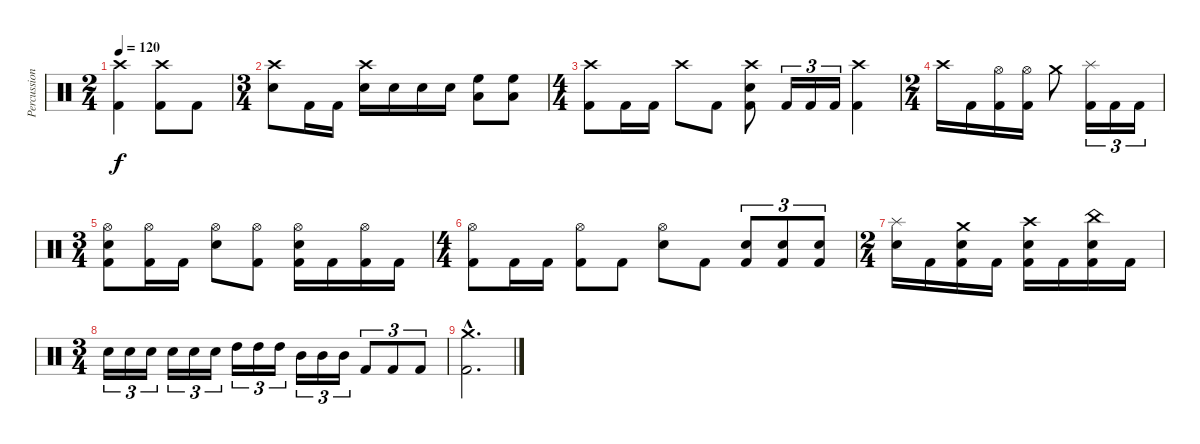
\track ("Percussion" "Percussion") {instrument percussion}
\staff {score}
\articulation defaults
\ts (2 4)
\tempo 120
\clef neutral
\ks aminor
("Crash high (hit)" "Kick (hit) 2").4{dy f} ("Crash high (hit)" "Kick (hit) 2").8 "Kick (hit) 2".8 |
\ts (3 4)
("Crash high (hit)" "Electric Snare (hit)").8 "Kick (hit) 2".16 "Kick (hit) 2".16 ("Crash high (hit)" "Electric Snare (hit)").16 "Electric Snare (hit)".16 "Electric Snare (hit)".16 "Electric Snare (hit)".16 ("Low Tom (hit)" "High Floor Tom (hit)").8 ("Low Tom (hit)" "High Floor Tom (hit)").8 |
\ts (4 4)
("Crash high (hit)" "Kick (hit) 2").8 "Kick (hit) 2".16 "Kick (hit) 2".16 "Crash high (hit)".8 "Kick (hit) 2".8 ("Crash high (hit)" "Electric Snare (hit)" "Kick (hit) 2").8 "Kick (hit) 2".16{tu (3 2)} "Kick (hit) 2".16{tu (3 2)} "Kick (hit) 2".16{tu (3 2)} ("Crash high (hit)" "Kick (hit) 2").4 |
\ts (2 4)
"Crash high (hit)".16 "Kick (hit) 2".16 ("Hi-Hat (open)" "Kick (hit) 2").16 ("Hi-Hat (open)" "Kick (hit) 2").16 "Crash medium (hit)".8 ("Splash (hit)" "Kick (hit) 2").16{tu (3 2)} "Kick (hit) 2".16{tu (3 2)} "Kick (hit) 2".16{tu (3 2)} |
\ts (3 4)
("Hi-Hat (open)" "Electric Snare (hit)" "Kick (hit) 2").8 ("Hi-Hat (open)" "Kick (hit) 2").16 "Kick (hit) 2".16 ("Hi-Hat (open)" "Electric Snare (hit)").8 ("Hi-Hat (open)" "Kick (hit) 2").8 ("Hi-Hat (open)" "Electric Snare (hit)" "Kick (hit) 2").16 "Kick (hit) 2".16 ("Hi-Hat (open)" "Kick (hit) 2").16 "Kick (hit) 2".16 |
\ts (4 4)
("Hi-Hat (open)" "Kick (hit) 2").8 "Kick (hit) 2".16 "Kick (hit) 2".16 ("Hi-Hat (open)" "Kick (hit) 2").8 "Kick (hit) 2".8 ("Hi-Hat (open)" "Electric Snare (hit)").8 "Kick (hit) 2".8 ("Electric Snare (hit)" "Kick (hit) 2").8{tu (3 2)} ("Electric Snare (hit)" "Kick (hit) 2").8{tu (3 2)} ("Electric Snare (hit)" "Kick (hit) 2").8{tu (3 2)} |
\ts (2 4)
("Splash (hit)" "Electric Snare (hit)").16 "Kick (hit) 2".16 ("Crash medium (hit)" "Electric Snare (hit)" "Kick (hit) 2").16 "Kick (hit) 2".16 ("Crash high (hit)" "Electric Snare (hit)" "Kick (hit) 2").16 "Kick (hit) 2".16 ("China (hit)" "Electric Snare (hit)" "Kick (hit) 2").16 "Kick (hit) 2".16 |
\ts (3 4)
"Electric Snare (hit)".16{tu (3 2)} "Electric Snare (hit)".16{tu (3 2)} "Electric Snare (hit)".16{tu (3 2)} "Electric Snare (hit)".16{tu (3 2)} "Electric Snare (hit)".16{tu (3 2)} "Electric Snare (hit)".16{tu (3 2)} "High Tom (hit)".16{tu (3 2)} "High Tom (hit)".16{tu (3 2)} "High Tom (hit)".16{tu (3 2)} "Mid Tom (hit)".16{tu (3 2)} "Mid Tom (hit)".16{tu (3 2)} "Mid Tom (hit)".16{tu (3 2)} "Kick (hit) 2".8{tu (3 2)} "Kick (hit) 2".8{tu (3 2)} "Kick (hit) 2".8{tu (3 2)} |
("Crash medium (hit)"{hac} "Kick (hit) 2"{hac}).2{d}
